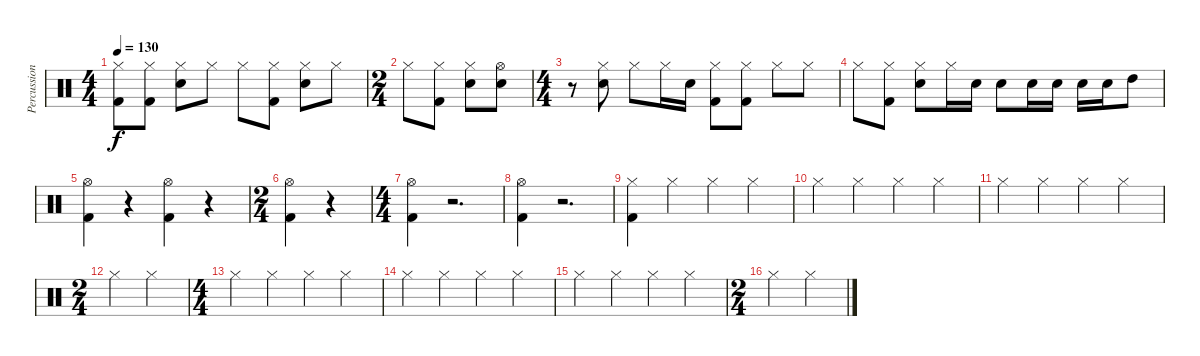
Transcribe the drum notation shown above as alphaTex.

\track ("Percussion" "Percussion") {instrument percussion}
\staff {score}
\articulation defaults
\ts (4 4)
\tempo 130
\clef neutral
\ks c
("Kick (hit) 2" "Hi-Hat (closed)").8{dy f} ("Kick (hit) 2" "Hi-Hat (closed)").8 ("Snare (hit) 2" "Hi-Hat (closed)").8 "Hi-Hat (closed)".8 "Hi-Hat (closed)".8 ("Kick (hit) 2" "Hi-Hat (closed)").8 ("Snare (hit) 2" "Hi-Hat (closed)").8 "Hi-Hat (closed)".8 |
\ts (2 4)
"Hi-Hat (closed)".8 ("Kick (hit) 2" "Hi-Hat (closed)").8 ("Snare (hit) 2" "Hi-Hat (closed)").8 ("Snare (hit) 2" "Hi-Hat (open)").8 |
\ts (4 4)
r.8 ("Snare (hit) 2" "Hi-Hat (closed)").8 "Hi-Hat (closed)".8 "Hi-Hat (closed)".16 "Snare (hit) 2".16 ("Kick (hit) 2" "Hi-Hat (closed)").8 ("Kick (hit) 2" "Hi-Hat (closed)").8 "Hi-Hat (closed)".8 "Hi-Hat (closed)".8 |
"Hi-Hat (closed)".8 ("Kick (hit) 2" "Hi-Hat (closed)").8 ("Snare (hit) 2" "Hi-Hat (closed)").8 "Hi-Hat (closed)".16 "Snare (hit) 2".16 "Snare (hit) 2".8 "Snare (hit) 2".16 "Snare (hit) 2".16 "Snare (hit) 2".16 "Snare (hit) 2".16 "High Tom (hit)".8 |
("Kick (hit) 2" "Hi-Hat (open)").4 r.4 ("Kick (hit) 2" "Hi-Hat (open)").4 r.4 |
\ts (2 4)
("Kick (hit) 2" "Hi-Hat (open)").4 r.4 |
\ts (4 4)
("Kick (hit) 2" "Hi-Hat (open)").4 r.2{d} |
("Kick (hit) 2" "Hi-Hat (open)").4 r.2{d} |
("Kick (hit) 2" "Hi-Hat (closed)").4 "Hi-Hat (closed)".4 "Hi-Hat (closed)".4 "Hi-Hat (closed)".4 |
"Hi-Hat (closed)".4 "Hi-Hat (closed)".4 "Hi-Hat (closed)".4 "Hi-Hat (closed)".4 |
"Hi-Hat (closed)".4 "Hi-Hat (closed)".4 "Hi-Hat (closed)".4 "Hi-Hat (closed)".4 |
\ts (2 4)
"Hi-Hat (closed)".4 "Hi-Hat (closed)".4 |
\ts (4 4)
"Hi-Hat (closed)".4 "Hi-Hat (closed)".4 "Hi-Hat (closed)".4 "Hi-Hat (closed)".4 |
"Hi-Hat (closed)".4 "Hi-Hat (closed)".4 "Hi-Hat (closed)".4 "Hi-Hat (closed)".4 |
"Hi-Hat (closed)".4 "Hi-Hat (closed)".4 "Hi-Hat (closed)".4 "Hi-Hat (closed)".4 |
\ts (2 4)
"Hi-Hat (closed)".4 "Hi-Hat (closed)".4
